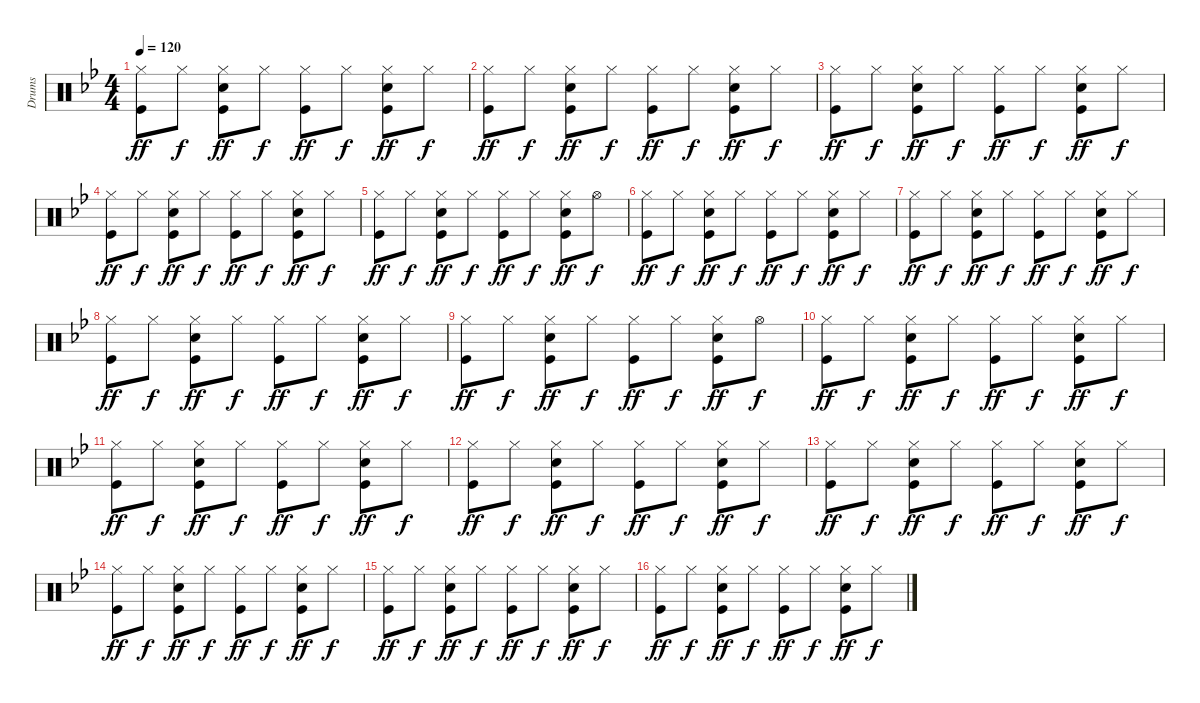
\track ("Drums" "Drums") {instrument percussion}
\staff {score}
\articulation defaults
\ts (4 4)
\tempo 120
\clef neutral
\ks bb
("Hi-Hat (closed)" "Kick (hit)").8{dy ff} "Hi-Hat (closed)".8{dy f} ("Hi-Hat (closed)" "Snare (hit) 2" "Kick (hit)").8{dy ff} "Hi-Hat (closed)".8{dy f} ("Hi-Hat (closed)" "Kick (hit)").8{dy ff} "Hi-Hat (closed)".8{dy f} ("Hi-Hat (closed)" "Snare (hit) 2" "Kick (hit)").8{dy ff} "Hi-Hat (closed)".8{dy f} |
("Hi-Hat (closed)" "Kick (hit)").8{dy ff} "Hi-Hat (closed)".8{dy f} ("Hi-Hat (closed)" "Snare (hit) 2" "Kick (hit)").8{dy ff} "Hi-Hat (closed)".8{dy f} ("Hi-Hat (closed)" "Kick (hit)").8{dy ff} "Hi-Hat (closed)".8{dy f} ("Hi-Hat (closed)" "Snare (hit) 2" "Kick (hit)").8{dy ff} "Hi-Hat (closed)".8{dy f} |
("Hi-Hat (closed)" "Kick (hit)").8{dy ff} "Hi-Hat (closed)".8{dy f} ("Hi-Hat (closed)" "Snare (hit) 2" "Kick (hit)").8{dy ff} "Hi-Hat (closed)".8{dy f} ("Hi-Hat (closed)" "Kick (hit)").8{dy ff} "Hi-Hat (closed)".8{dy f} ("Hi-Hat (closed)" "Snare (hit) 2" "Kick (hit)").8{dy ff} "Hi-Hat (closed)".8{dy f} |
("Hi-Hat (closed)" "Kick (hit)").8{dy ff} "Hi-Hat (closed)".8{dy f} ("Hi-Hat (closed)" "Snare (hit) 2" "Kick (hit)").8{dy ff} "Hi-Hat (closed)".8{dy f} ("Hi-Hat (closed)" "Kick (hit)").8{dy ff} "Hi-Hat (closed)".8{dy f} ("Hi-Hat (closed)" "Snare (hit) 2" "Kick (hit)").8{dy ff} "Hi-Hat (closed)".8{dy f} |
("Hi-Hat (closed)" "Kick (hit)").8{dy ff} "Hi-Hat (closed)".8{dy f} ("Hi-Hat (closed)" "Snare (hit) 2" "Kick (hit)").8{dy ff} "Hi-Hat (closed)".8{dy f} ("Hi-Hat (closed)" "Kick (hit)").8{dy ff} "Hi-Hat (closed)".8{dy f} ("Hi-Hat (closed)" "Snare (hit) 2" "Kick (hit)").8{dy ff} "Hi-Hat (open)".8{dy f} |
("Hi-Hat (closed)" "Kick (hit)").8{dy ff} "Hi-Hat (closed)".8{dy f} ("Hi-Hat (closed)" "Snare (hit) 2" "Kick (hit)").8{dy ff} "Hi-Hat (closed)".8{dy f} ("Hi-Hat (closed)" "Kick (hit)").8{dy ff} "Hi-Hat (closed)".8{dy f} ("Hi-Hat (closed)" "Snare (hit) 2" "Kick (hit)").8{dy ff} "Hi-Hat (closed)".8{dy f} |
("Hi-Hat (closed)" "Kick (hit)").8{dy ff} "Hi-Hat (closed)".8{dy f} ("Hi-Hat (closed)" "Snare (hit) 2" "Kick (hit)").8{dy ff} "Hi-Hat (closed)".8{dy f} ("Hi-Hat (closed)" "Kick (hit)").8{dy ff} "Hi-Hat (closed)".8{dy f} ("Hi-Hat (closed)" "Snare (hit) 2" "Kick (hit)").8{dy ff} "Hi-Hat (closed)".8{dy f} |
("Hi-Hat (closed)" "Kick (hit)").8{dy ff} "Hi-Hat (closed)".8{dy f} ("Hi-Hat (closed)" "Snare (hit) 2" "Kick (hit)").8{dy ff} "Hi-Hat (closed)".8{dy f} ("Hi-Hat (closed)" "Kick (hit)").8{dy ff} "Hi-Hat (closed)".8{dy f} ("Hi-Hat (closed)" "Snare (hit) 2" "Kick (hit)").8{dy ff} "Hi-Hat (closed)".8{dy f} |
("Hi-Hat (closed)" "Kick (hit)").8{dy ff} "Hi-Hat (closed)".8{dy f} ("Hi-Hat (closed)" "Snare (hit) 2" "Kick (hit)").8{dy ff} "Hi-Hat (closed)".8{dy f} ("Hi-Hat (closed)" "Kick (hit)").8{dy ff} "Hi-Hat (closed)".8{dy f} ("Hi-Hat (closed)" "Snare (hit) 2" "Kick (hit)").8{dy ff} "Hi-Hat (open)".8{dy f} |
("Hi-Hat (closed)" "Kick (hit)").8{dy ff} "Hi-Hat (closed)".8{dy f} ("Hi-Hat (closed)" "Snare (hit) 2" "Kick (hit)").8{dy ff} "Hi-Hat (closed)".8{dy f} ("Hi-Hat (closed)" "Kick (hit)").8{dy ff} "Hi-Hat (closed)".8{dy f} ("Hi-Hat (closed)" "Snare (hit) 2" "Kick (hit)").8{dy ff} "Hi-Hat (closed)".8{dy f} |
("Hi-Hat (closed)" "Kick (hit)").8{dy ff} "Hi-Hat (closed)".8{dy f} ("Hi-Hat (closed)" "Snare (hit) 2" "Kick (hit)").8{dy ff} "Hi-Hat (closed)".8{dy f} ("Hi-Hat (closed)" "Kick (hit)").8{dy ff} "Hi-Hat (closed)".8{dy f} ("Hi-Hat (closed)" "Snare (hit) 2" "Kick (hit)").8{dy ff} "Hi-Hat (closed)".8{dy f} |
("Hi-Hat (closed)" "Kick (hit)").8{dy ff} "Hi-Hat (closed)".8{dy f} ("Hi-Hat (closed)" "Snare (hit) 2" "Kick (hit)").8{dy ff} "Hi-Hat (closed)".8{dy f} ("Hi-Hat (closed)" "Kick (hit)").8{dy ff} "Hi-Hat (closed)".8{dy f} ("Hi-Hat (closed)" "Snare (hit) 2" "Kick (hit)").8{dy ff} "Hi-Hat (closed)".8{dy f} |
("Hi-Hat (closed)" "Kick (hit)").8{dy ff} "Hi-Hat (closed)".8{dy f} ("Hi-Hat (closed)" "Snare (hit) 2" "Kick (hit)").8{dy ff} "Hi-Hat (closed)".8{dy f} ("Hi-Hat (closed)" "Kick (hit)").8{dy ff} "Hi-Hat (closed)".8{dy f} ("Hi-Hat (closed)" "Snare (hit) 2" "Kick (hit)").8{dy ff} "Hi-Hat (closed)".8{dy f} |
("Hi-Hat (closed)" "Kick (hit)").8{dy ff} "Hi-Hat (closed)".8{dy f} ("Hi-Hat (closed)" "Snare (hit) 2" "Kick (hit)").8{dy ff} "Hi-Hat (closed)".8{dy f} ("Hi-Hat (closed)" "Kick (hit)").8{dy ff} "Hi-Hat (closed)".8{dy f} ("Hi-Hat (closed)" "Snare (hit) 2" "Kick (hit)").8{dy ff} "Hi-Hat (closed)".8{dy f} |
("Hi-Hat (closed)" "Kick (hit)").8{dy ff} "Hi-Hat (closed)".8{dy f} ("Hi-Hat (closed)" "Snare (hit) 2" "Kick (hit)").8{dy ff} "Hi-Hat (closed)".8{dy f} ("Hi-Hat (closed)" "Kick (hit)").8{dy ff} "Hi-Hat (closed)".8{dy f} ("Hi-Hat (closed)" "Snare (hit) 2" "Kick (hit)").8{dy ff} "Hi-Hat (closed)".8{dy f} |
("Hi-Hat (closed)" "Kick (hit)").8{dy ff} "Hi-Hat (closed)".8{dy f} ("Hi-Hat (closed)" "Snare (hit) 2" "Kick (hit)").8{dy ff} "Hi-Hat (closed)".8{dy f} ("Hi-Hat (closed)" "Kick (hit)").8{dy ff} "Hi-Hat (closed)".8{dy f} ("Hi-Hat (closed)" "Snare (hit) 2" "Kick (hit)").8{dy ff} "Hi-Hat (closed)".8{dy f}
